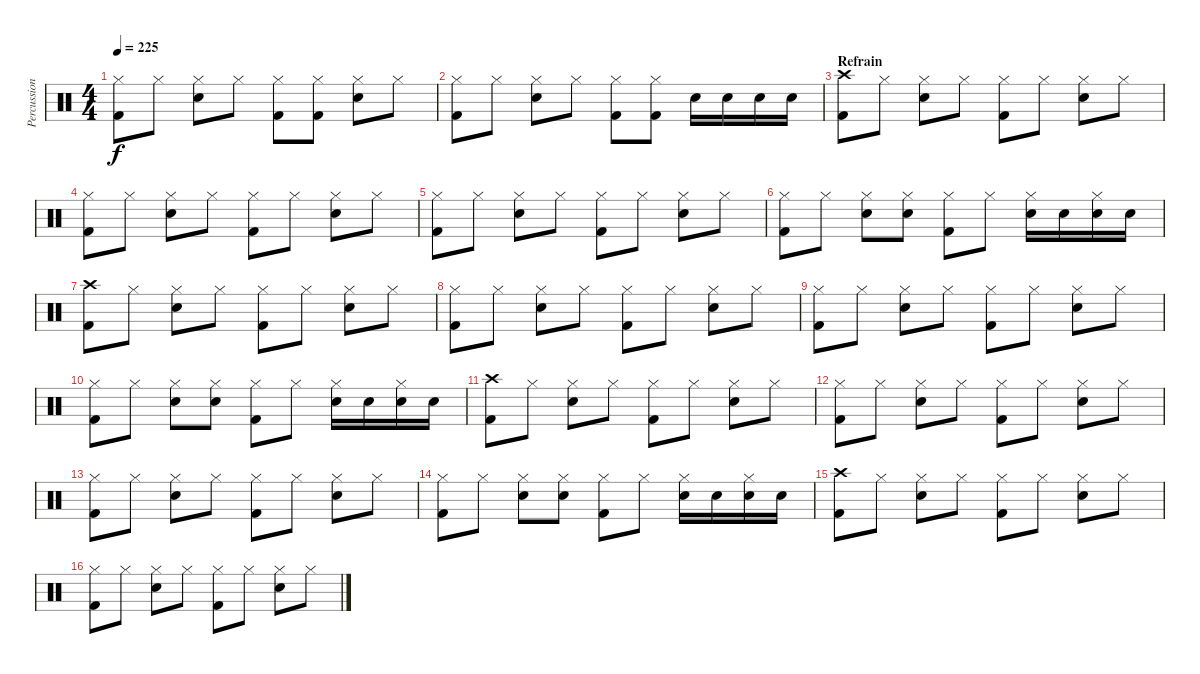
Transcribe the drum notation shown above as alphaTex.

\track ("Percussions" "Percussion") {instrument percussion}
\staff {score}
\articulation defaults
\ts (4 4)
\tempo 225
\clef neutral
\ks c
("Hi-Hat (closed)" "Kick (hit) 2").8{dy f} "Hi-Hat (closed)".8 ("Hi-Hat (closed)" "Snare (hit) 2").8 "Hi-Hat (closed)".8 ("Hi-Hat (closed)" "Kick (hit) 2").8 ("Hi-Hat (closed)" "Kick (hit) 2").8 ("Hi-Hat (closed)" "Snare (hit) 2").8 "Hi-Hat (closed)".8 |
("Hi-Hat (closed)" "Kick (hit) 2").8 "Hi-Hat (closed)".8 ("Hi-Hat (closed)" "Snare (hit) 2").8 "Hi-Hat (closed)".8 ("Hi-Hat (closed)" "Kick (hit) 2").8 ("Hi-Hat (closed)" "Kick (hit) 2").8 "Snare (hit) 2".16 "Snare (hit) 2".16 "Snare (hit) 2".16 "Snare (hit) 2".16 |
\section ("" "Refrain")
("Crash high (hit)" "Kick (hit) 2").8 "Hi-Hat (closed)".8 ("Hi-Hat (closed)" "Snare (hit) 2").8 "Hi-Hat (closed)".8 ("Hi-Hat (closed)" "Kick (hit) 2").8 "Hi-Hat (closed)".8 ("Hi-Hat (closed)" "Snare (hit) 2").8 "Hi-Hat (closed)".8 |
("Hi-Hat (closed)" "Kick (hit) 2").8 "Hi-Hat (closed)".8 ("Hi-Hat (closed)" "Snare (hit) 2").8 "Hi-Hat (closed)".8 ("Hi-Hat (closed)" "Kick (hit) 2").8 "Hi-Hat (closed)".8 ("Hi-Hat (closed)" "Snare (hit) 2").8 "Hi-Hat (closed)".8 |
("Hi-Hat (closed)" "Kick (hit) 2").8 "Hi-Hat (closed)".8 ("Hi-Hat (closed)" "Snare (hit) 2").8 "Hi-Hat (closed)".8 ("Hi-Hat (closed)" "Kick (hit) 2").8 "Hi-Hat (closed)".8 ("Hi-Hat (closed)" "Snare (hit) 2").8 "Hi-Hat (closed)".8 |
("Hi-Hat (closed)" "Kick (hit) 2").8 "Hi-Hat (closed)".8 ("Hi-Hat (closed)" "Snare (hit) 2").8 ("Hi-Hat (closed)" "Snare (hit) 2").8 ("Hi-Hat (closed)" "Kick (hit) 2").8 "Hi-Hat (closed)".8 ("Hi-Hat (closed)" "Snare (hit) 2").16 "Snare (hit) 2".16 ("Hi-Hat (closed)" "Snare (hit) 2").16 "Snare (hit) 2".16 |
("Crash high (hit)" "Kick (hit) 2").8 "Hi-Hat (closed)".8 ("Hi-Hat (closed)" "Snare (hit) 2").8 "Hi-Hat (closed)".8 ("Hi-Hat (closed)" "Kick (hit) 2").8 "Hi-Hat (closed)".8 ("Hi-Hat (closed)" "Snare (hit) 2").8 "Hi-Hat (closed)".8 |
("Hi-Hat (closed)" "Kick (hit) 2").8 "Hi-Hat (closed)".8 ("Hi-Hat (closed)" "Snare (hit) 2").8 "Hi-Hat (closed)".8 ("Hi-Hat (closed)" "Kick (hit) 2").8 "Hi-Hat (closed)".8 ("Hi-Hat (closed)" "Snare (hit) 2").8 "Hi-Hat (closed)".8 |
("Hi-Hat (closed)" "Kick (hit) 2").8 "Hi-Hat (closed)".8 ("Hi-Hat (closed)" "Snare (hit) 2").8 "Hi-Hat (closed)".8 ("Hi-Hat (closed)" "Kick (hit) 2").8 "Hi-Hat (closed)".8 ("Hi-Hat (closed)" "Snare (hit) 2").8 "Hi-Hat (closed)".8 |
("Hi-Hat (closed)" "Kick (hit) 2").8 "Hi-Hat (closed)".8 ("Hi-Hat (closed)" "Snare (hit) 2").8 ("Hi-Hat (closed)" "Snare (hit) 2").8 ("Hi-Hat (closed)" "Kick (hit) 2").8 "Hi-Hat (closed)".8 ("Hi-Hat (closed)" "Snare (hit) 2").16 "Snare (hit) 2".16 ("Hi-Hat (closed)" "Snare (hit) 2").16 "Snare (hit) 2".16 |
("Crash high (hit)" "Kick (hit) 2").8 "Hi-Hat (closed)".8 ("Hi-Hat (closed)" "Snare (hit) 2").8 "Hi-Hat (closed)".8 ("Hi-Hat (closed)" "Kick (hit) 2").8 "Hi-Hat (closed)".8 ("Hi-Hat (closed)" "Snare (hit) 2").8 "Hi-Hat (closed)".8 |
("Hi-Hat (closed)" "Kick (hit) 2").8 "Hi-Hat (closed)".8 ("Hi-Hat (closed)" "Snare (hit) 2").8 "Hi-Hat (closed)".8 ("Hi-Hat (closed)" "Kick (hit) 2").8 "Hi-Hat (closed)".8 ("Hi-Hat (closed)" "Snare (hit) 2").8 "Hi-Hat (closed)".8 |
("Hi-Hat (closed)" "Kick (hit) 2").8 "Hi-Hat (closed)".8 ("Hi-Hat (closed)" "Snare (hit) 2").8 "Hi-Hat (closed)".8 ("Hi-Hat (closed)" "Kick (hit) 2").8 "Hi-Hat (closed)".8 ("Hi-Hat (closed)" "Snare (hit) 2").8 "Hi-Hat (closed)".8 |
("Hi-Hat (closed)" "Kick (hit) 2").8 "Hi-Hat (closed)".8 ("Hi-Hat (closed)" "Snare (hit) 2").8 ("Hi-Hat (closed)" "Snare (hit) 2").8 ("Hi-Hat (closed)" "Kick (hit) 2").8 "Hi-Hat (closed)".8 ("Hi-Hat (closed)" "Snare (hit) 2").16 "Snare (hit) 2".16 ("Hi-Hat (closed)" "Snare (hit) 2").16 "Snare (hit) 2".16 |
("Crash high (hit)" "Kick (hit) 2").8 "Hi-Hat (closed)".8 ("Hi-Hat (closed)" "Snare (hit) 2").8 "Hi-Hat (closed)".8 ("Hi-Hat (closed)" "Kick (hit) 2").8 "Hi-Hat (closed)".8 ("Hi-Hat (closed)" "Snare (hit) 2").8 "Hi-Hat (closed)".8 |
("Hi-Hat (closed)" "Kick (hit) 2").8 "Hi-Hat (closed)".8 ("Hi-Hat (closed)" "Snare (hit) 2").8 "Hi-Hat (closed)".8 ("Hi-Hat (closed)" "Kick (hit) 2").8 "Hi-Hat (closed)".8 ("Hi-Hat (closed)" "Snare (hit) 2").8 "Hi-Hat (closed)".8
